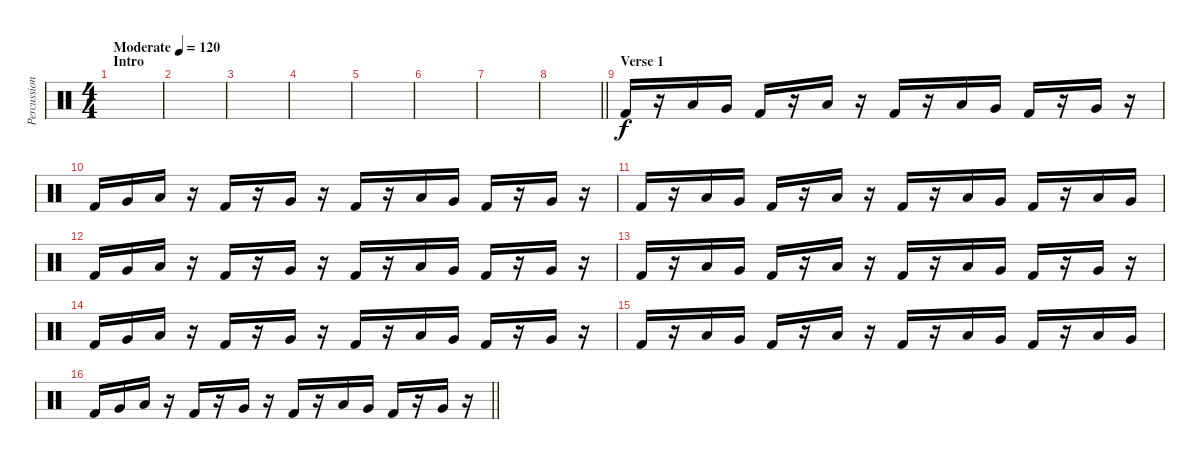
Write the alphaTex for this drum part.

\track ("Percussion" "Percussion") {instrument percussion}
\staff {score}
\articulation defaults
\ts (4 4)
\section ("" "Intro")
\tempo (120 "Moderate")
\clef neutral
\ks c
|
|
|
|
|
|
|
\barLineRight lightlight
|
\section ("" "Verse 1")
"Kick (hit) 2".16 r.16 "Low Tom (hit)".16 "Very Low Tom (hit)".16 "Kick (hit) 2".16 r.16 "Low Tom (hit)".16 r.16 "Kick (hit) 2".16 r.16 "Low Tom (hit)".16 "Very Low Tom (hit)".16 "Kick (hit) 2".16 r.16 "Very Low Tom (hit)".16 r.16 |
"Kick (hit) 2".16 "Very Low Tom (hit)".16 "Low Tom (hit)".16 r.16 "Kick (hit) 2".16 r.16 "Very Low Tom (hit)".16 r.16 "Kick (hit) 2".16 r.16 "Low Tom (hit)".16 "Very Low Tom (hit)".16 "Kick (hit) 2".16 r.16 "Very Low Tom (hit)".16 r.16 |
"Kick (hit) 2".16 r.16 "Low Tom (hit)".16 "Very Low Tom (hit)".16 "Kick (hit) 2".16 r.16 "Low Tom (hit)".16 r.16 "Kick (hit) 2".16 r.16 "Low Tom (hit)".16 "Very Low Tom (hit)".16 "Kick (hit) 2".16 r.16 "Low Tom (hit)".16 "Very Low Tom (hit)".16 |
"Kick (hit) 2".16 "Very Low Tom (hit)".16 "Low Tom (hit)".16 r.16 "Kick (hit) 2".16 r.16 "Very Low Tom (hit)".16 r.16 "Kick (hit) 2".16 r.16 "Low Tom (hit)".16 "Very Low Tom (hit)".16 "Kick (hit) 2".16 r.16 "Very Low Tom (hit)".16 r.16 |
"Kick (hit) 2".16 r.16 "Low Tom (hit)".16 "Very Low Tom (hit)".16 "Kick (hit) 2".16 r.16 "Low Tom (hit)".16 r.16 "Kick (hit) 2".16 r.16 "Low Tom (hit)".16 "Very Low Tom (hit)".16 "Kick (hit) 2".16 r.16 "Very Low Tom (hit)".16 r.16 |
"Kick (hit) 2".16 "Very Low Tom (hit)".16 "Low Tom (hit)".16 r.16 "Kick (hit) 2".16 r.16 "Very Low Tom (hit)".16 r.16 "Kick (hit) 2".16 r.16 "Low Tom (hit)".16 "Very Low Tom (hit)".16 "Kick (hit) 2".16 r.16 "Very Low Tom (hit)".16 r.16 |
"Kick (hit) 2".16 r.16 "Low Tom (hit)".16 "Very Low Tom (hit)".16 "Kick (hit) 2".16 r.16 "Low Tom (hit)".16 r.16 "Kick (hit) 2".16 r.16 "Low Tom (hit)".16 "Very Low Tom (hit)".16 "Kick (hit) 2".16 r.16 "Low Tom (hit)".16 "Very Low Tom (hit)".16 |
\barLineRight lightlight "Kick (hit) 2".16 "Very Low Tom (hit)".16 "Low Tom (hit)".16
r.16 "Kick (hit) 2".16 r.16 "Very Low Tom (hit)".16 r.16 "Kick (hit) 2".16 r.16 "Low Tom (hit)".16 "Very Low Tom (hit)".16 "Kick (hit) 2".16 r.16 "Very Low Tom (hit)".16 r.16
